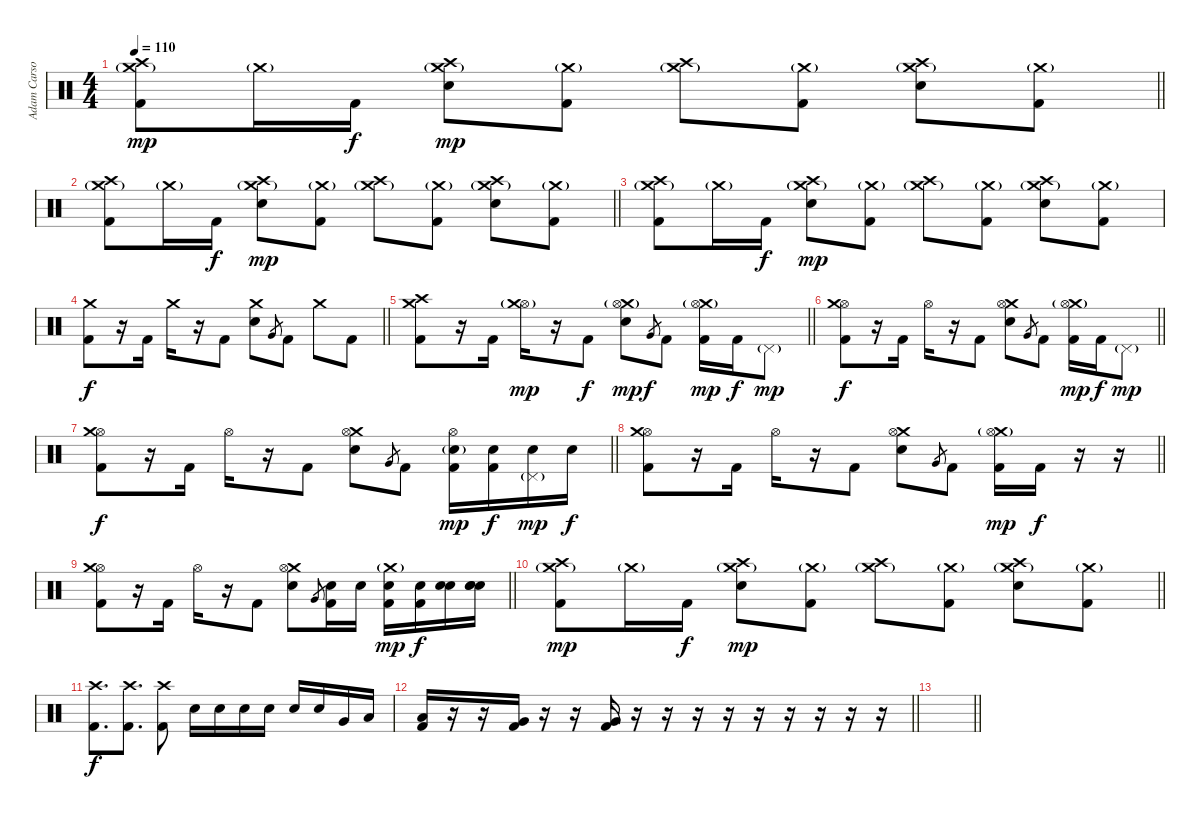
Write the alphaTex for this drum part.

\track ("Adam Carson" "Adam Carso") {instrument percussion}
\staff {score}
\articulation defaults
\ts (4 4)
\tempo 110
\clef neutral
\barLineRight lightlight
\ks c
("Crash high (hit)" "Crash medium (hit)"{g} "Kick (hit) 2").8{dy mp} "Crash medium (hit)"{g}.16 "Kick (hit) 2".16{dy f} ("Crash high (hit)" "Crash medium (hit)"{g} "Snare (hit) 2").8{dy mp} ("Crash medium (hit)"{g} "Kick (hit) 2").8 ("Crash high (hit)" "Crash medium (hit)"{g}).8 ("Crash medium (hit)"{g} "Kick (hit) 2").8 ("Crash high (hit)" "Crash medium (hit)"{g} "Snare (hit) 2").8 ("Crash medium (hit)"{g} "Kick (hit) 2").8 |
\barLineRight lightlight
("Crash high (hit)" "Crash medium (hit)"{g} "Kick (hit) 2").8 "Crash medium (hit)"{g}.16 "Kick (hit) 2".16{dy f} ("Crash high (hit)" "Crash medium (hit)"{g} "Snare (hit) 2").8{dy mp} ("Crash medium (hit)"{g} "Kick (hit) 2").8 ("Crash high (hit)" "Crash medium (hit)"{g}).8 ("Crash medium (hit)"{g} "Kick (hit) 2").8 ("Crash high (hit)" "Crash medium (hit)"{g} "Snare (hit) 2").8 ("Crash medium (hit)"{g} "Kick (hit) 2").8 |
("Crash high (hit)" "Crash medium (hit)"{g} "Kick (hit) 2").8 "Crash medium (hit)"{g}.16 "Kick (hit) 2".16{dy f} ("Crash high (hit)" "Crash medium (hit)"{g} "Snare (hit) 2").8{dy mp} ("Crash medium (hit)"{g} "Kick (hit) 2").8 ("Crash high (hit)" "Crash medium (hit)"{g}).8 ("Crash medium (hit)"{g} "Kick (hit) 2").8 ("Crash high (hit)" "Crash medium (hit)"{g} "Snare (hit) 2").8 ("Crash medium (hit)"{g} "Kick (hit) 2").8 |
\barLineRight lightlight
("Crash medium (hit)" "Kick (hit) 2").8{dy f} r.16 "Kick (hit) 2".16 "Crash medium (hit)".16 r.16 "Kick (hit) 2".8 ("Crash medium (hit)" "Snare (hit) 2").8 "Very Low Tom (hit)".8{gr} "Kick (hit) 2".8 "Crash medium (hit)".8 "Kick (hit) 2".8 |
\barLineRight lightlight
("Crash high (hit)" "Crash medium (hit)" "Kick (hit) 2").8 r.16 "Kick (hit) 2".16 ("Hi-Hat (open)"{g} "Crash medium (hit)").16{dy mp} r.16 "Kick (hit) 2".8{dy f} ("Crash medium (hit)"{g} "Hi-Hat (open)" "Snare (hit) 2").8{dy mp} "Very Low Tom (hit)".8{gr dy f} "Kick (hit) 2".8 ("Kick (hit) 2" "Crash medium (hit)"{g} "Hi-Hat (open)").16{dy mp} "Kick (hit) 2".16{dy f} "Pedal Hi-Hat (hit)"{g}.8{dy mp} |
\barLineRight lightlight
("Hi-Hat (open)" "Crash medium (hit)" "Kick (hit) 2").8{dy f} r.16 "Kick (hit) 2".16 "Hi-Hat (open)".16 r.16 "Kick (hit) 2".8 ("Crash medium (hit)" "Hi-Hat (open)" "Snare (hit) 2").8 "Very Low Tom (hit)".8{gr} "Kick (hit) 2".8 ("Kick (hit) 2" "Crash medium (hit)"{g} "Hi-Hat (open)").16{dy mp} "Kick (hit) 2".16{dy f} "Pedal Hi-Hat (hit)"{g}.8{dy mp} |
\barLineRight lightlight
("Hi-Hat (open)" "Crash medium (hit)" "Kick (hit) 2").8{dy f} r.16 "Kick (hit) 2".16 "Hi-Hat (open)".16 r.16 "Kick (hit) 2".8 ("Crash medium (hit)" "Hi-Hat (open)" "Snare (hit) 2").8 "Very Low Tom (hit)".8{gr} "Kick (hit) 2".8 ("Kick (hit) 2" "Snare (hit) 2"{g} "Hi-Hat (open)").16{dy mp} ("Kick (hit) 2" "Snare (hit) 2").16{dy f} ("Snare (hit) 2" "Pedal Hi-Hat (hit)"{g}).16{dy mp} "Snare (hit) 2".16{dy f} |
\barLineRight lightlight
("Hi-Hat (open)" "Crash medium (hit)" "Kick (hit) 2").8 r.16 "Kick (hit) 2".16 "Hi-Hat (open)".16 r.16 "Kick (hit) 2".8 ("Crash medium (hit)" "Hi-Hat (open)" "Snare (hit) 2").8 "Very Low Tom (hit)".8{gr} "Kick (hit) 2".8 ("Kick (hit) 2" "Crash medium (hit)"{g} "Hi-Hat (open)").16{dy mp} "Kick (hit) 2".16{dy f} r.16 r.16 |
\barLineRight lightlight
("Hi-Hat (open)" "Crash medium (hit)" "Kick (hit) 2").8 r.16 "Kick (hit) 2".16 "Hi-Hat (open)".16 r.16 "Kick (hit) 2".8 ("Crash medium (hit)" "Hi-Hat (open)" "Snare (hit) 2").8 "Very Low Tom (hit)".8{gr} ("Snare (hit) 2" "Kick (hit) 2").16 "Snare (hit) 2".16 ("Kick (hit) 2" "Crash medium (hit)"{g} "Snare (hit) 2").16{dy mp} ("Kick (hit) 2" "Snare (hit) 2").16{dy f} ("Snare (hit) 2" "Snare (hit) 2").16 ("Snare (hit) 2" "Snare (hit) 2" "Snare (hit) 2").16 |
\barLineRight lightlight
("Crash high (hit)" "Crash medium (hit)"{g} "Kick (hit) 2").8{dy mp} "Crash medium (hit)"{g}.16 "Kick (hit) 2".16{dy f} ("Crash high (hit)" "Crash medium (hit)"{g} "Snare (hit) 2").8{dy mp} ("Crash medium (hit)"{g} "Kick (hit) 2").8 ("Crash high (hit)" "Crash medium (hit)"{g}).8 ("Crash medium (hit)"{g} "Kick (hit) 2").8 ("Crash high (hit)" "Crash medium (hit)"{g} "Snare (hit) 2").8 ("Crash medium (hit)"{g} "Kick (hit) 2").8 |
("Crash high (hit)" "Kick (hit) 2").8{d dy f} ("Crash high (hit)" "Kick (hit) 2").8{d} ("Crash high (hit)" "Kick (hit) 2").8 "Snare (hit) 2".16 "Snare (hit) 2".16 "Snare (hit) 2".16 "Snare (hit) 2".16 "Snare (hit) 2".16 "Snare (hit) 2".16 "Very Low Tom (hit)".16 "Low Floor Tom (hit)".16 |
\barLineRight lightlight
("Low Floor Tom (hit)" "Kick (hit) 2").16{bd 60} r.16 r.16 ("Very Low Tom (hit)" "Kick (hit) 2").16{bd 60} r.16 r.16 ("Very Low Tom (hit)" "Kick (hit) 2").16{bd 60} r.16 r.16 r.16 r.16 r.16 r.16 r.16 r.16 r.16 |
\barLineRight lightlight
